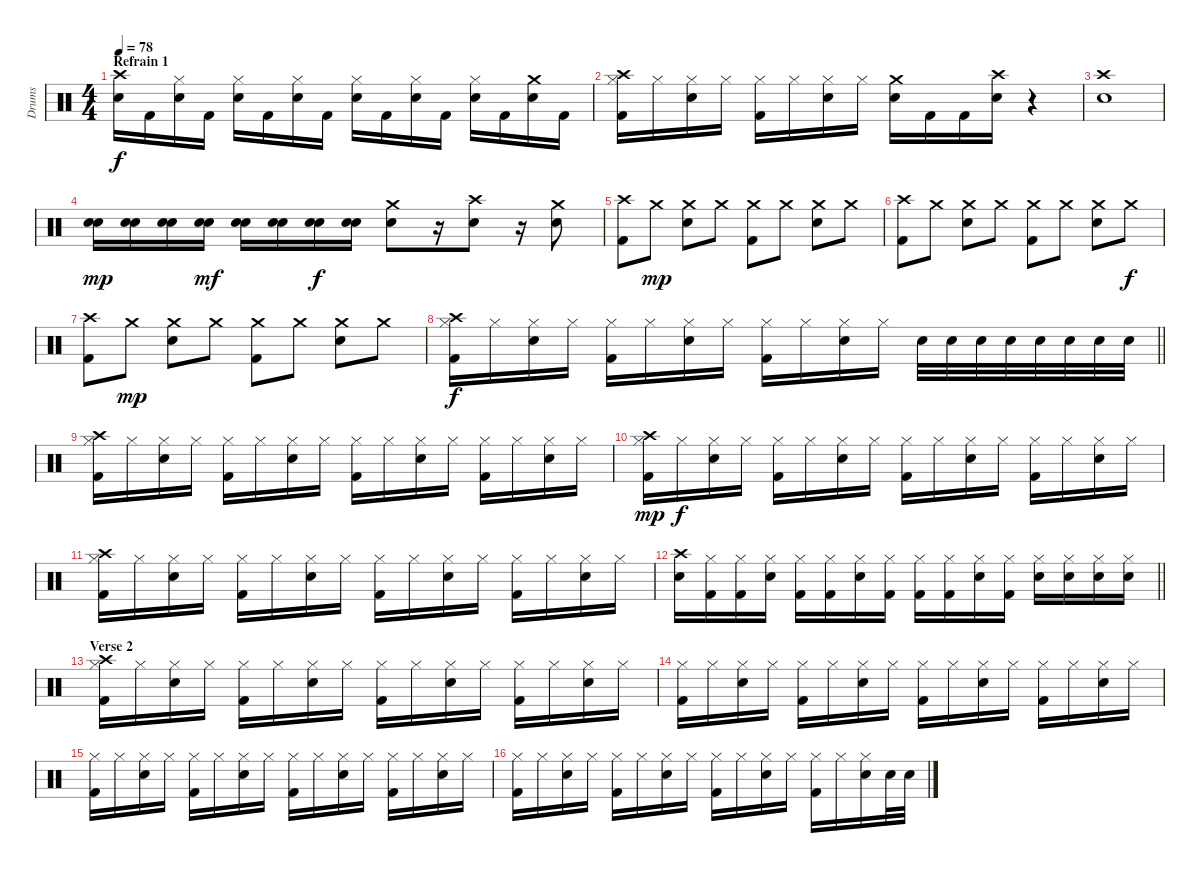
\track ("Drums" "Drums") {instrument percussion}
\staff {score}
\articulation defaults
\ts (4 4)
\section ("" "Refrain 1")
\tempo 78
\clef neutral
\ks c
("Crash high (hit)" "Snare (hit) 2").16{dy f} "Kick (hit) 2".16 ("Hi-Hat (closed)" "Snare (hit) 2").16 "Kick (hit) 2".16 ("Hi-Hat (closed)" "Snare (hit) 2").16 "Kick (hit) 2".16 ("Hi-Hat (closed)" "Snare (hit) 2").16 "Kick (hit) 2".16 ("Hi-Hat (closed)" "Snare (hit) 2").16 "Kick (hit) 2".16 ("Hi-Hat (closed)" "Snare (hit) 2").16 "Kick (hit) 2".16 ("Hi-Hat (closed)" "Snare (hit) 2").16 "Kick (hit) 2".16 ("Crash medium (hit)" "Snare (hit) 2").16 "Kick (hit) 2".16 |
("Crash high (hit)" "Hi-Hat (closed)" "Kick (hit) 2").16 "Hi-Hat (closed)".16 ("Hi-Hat (closed)" "Snare (hit) 2").16 "Hi-Hat (closed)".16 ("Hi-Hat (closed)" "Kick (hit) 2").16 "Hi-Hat (closed)".16 ("Hi-Hat (closed)" "Snare (hit) 2").16 "Hi-Hat (closed)".16 ("Crash medium (hit)" "Snare (hit) 2").16 "Kick (hit) 2".16 "Kick (hit) 2".16 ("Crash high (hit)" "Snare (hit) 2").16 r.4 |
("Crash high (hit)" "Snare (hit) 2").1 |
("Electric Snare (hit)" "Snare (hit) 2").16{dy mp} ("Electric Snare (hit)" "Snare (hit) 2").16 ("Electric Snare (hit)" "Snare (hit) 2").16 ("Electric Snare (hit)" "Snare (hit) 2").16{dy mf} ("Electric Snare (hit)" "Snare (hit) 2").16 ("Electric Snare (hit)" "Snare (hit) 2").16 ("Electric Snare (hit)" "Snare (hit) 2").16{dy f} ("Electric Snare (hit)" "Snare (hit) 2").16 ("Crash medium (hit)" "Snare (hit) 2").8 r.16 ("Crash high (hit)" "Snare (hit) 2").8 r.16 ("Crash medium (hit)" "Snare (hit) 2").8 |
("Crash high (hit)" "Kick (hit) 2").8 "Crash medium (hit)".8{dy mp} ("Crash medium (hit)" "Snare (hit) 2").8 "Crash medium (hit)".8 ("Crash medium (hit)" "Kick (hit) 2").8 "Crash medium (hit)".8 ("Crash medium (hit)" "Snare (hit) 2").8 "Crash medium (hit)".8 |
("Crash high (hit)" "Kick (hit) 2").8 "Crash medium (hit)".8 ("Crash medium (hit)" "Snare (hit) 2").8 "Crash medium (hit)".8 ("Crash medium (hit)" "Kick (hit) 2").8 "Crash medium (hit)".8 ("Crash medium (hit)" "Snare (hit) 2").8 "Crash medium (hit)".8{dy f} |
("Crash high (hit)" "Kick (hit) 2").8 "Crash medium (hit)".8{dy mp} ("Crash medium (hit)" "Snare (hit) 2").8 "Crash medium (hit)".8 ("Crash medium (hit)" "Kick (hit) 2").8 "Crash medium (hit)".8 ("Crash medium (hit)" "Snare (hit) 2").8 "Crash medium (hit)".8 |
\barLineRight lightlight
("Crash high (hit)" "Hi-Hat (closed)" "Kick (hit) 2").16{dy f} "Hi-Hat (closed)".16 ("Hi-Hat (closed)" "Snare (hit) 2").16 "Hi-Hat (closed)".16 ("Hi-Hat (closed)" "Kick (hit) 2").16 "Hi-Hat (closed)".16 ("Hi-Hat (closed)" "Snare (hit) 2").16 "Hi-Hat (closed)".16 ("Hi-Hat (closed)" "Kick (hit) 2").16 "Hi-Hat (closed)".16 ("Hi-Hat (closed)" "Snare (hit) 2").16 "Hi-Hat (closed)".16 "Snare (hit) 2".32 "Snare (hit) 2".32 "Snare (hit) 2".32 "Snare (hit) 2".32 "Snare (hit) 2".32 "Snare (hit) 2".32 "Snare (hit) 2".32 "Snare (hit) 2".32 |
("Crash high (hit)" "Hi-Hat (closed)" "Kick (hit) 2").16 "Hi-Hat (closed)".16 ("Hi-Hat (closed)" "Snare (hit) 2").16 "Hi-Hat (closed)".16 ("Hi-Hat (closed)" "Kick (hit) 2").16 "Hi-Hat (closed)".16 ("Hi-Hat (closed)" "Snare (hit) 2").16 "Hi-Hat (closed)".16 ("Hi-Hat (closed)" "Kick (hit) 2").16 "Hi-Hat (closed)".16 ("Hi-Hat (closed)" "Snare (hit) 2").16 "Hi-Hat (closed)".16 ("Hi-Hat (closed)" "Kick (hit) 2").16 "Hi-Hat (closed)".16 ("Hi-Hat (closed)" "Snare (hit) 2").16 "Hi-Hat (closed)".16 |
("Crash high (hit)" "Hi-Hat (closed)" "Kick (hit) 2").16{dy mp} "Hi-Hat (closed)".16{dy f} ("Hi-Hat (closed)" "Snare (hit) 2").16 "Hi-Hat (closed)".16 ("Hi-Hat (closed)" "Kick (hit) 2").16 "Hi-Hat (closed)".16 ("Hi-Hat (closed)" "Snare (hit) 2").16 "Hi-Hat (closed)".16 ("Hi-Hat (closed)" "Kick (hit) 2").16 "Hi-Hat (closed)".16 ("Hi-Hat (closed)" "Snare (hit) 2").16 "Hi-Hat (closed)".16 ("Hi-Hat (closed)" "Kick (hit) 2").16 "Hi-Hat (closed)".16 ("Hi-Hat (closed)" "Snare (hit) 2").16 "Hi-Hat (closed)".16 |
("Crash high (hit)" "Hi-Hat (closed)" "Kick (hit) 2").16 "Hi-Hat (closed)".16 ("Hi-Hat (closed)" "Snare (hit) 2").16 "Hi-Hat (closed)".16 ("Hi-Hat (closed)" "Kick (hit) 2").16 "Hi-Hat (closed)".16 ("Hi-Hat (closed)" "Snare (hit) 2").16 "Hi-Hat (closed)".16 ("Hi-Hat (closed)" "Kick (hit) 2").16 "Hi-Hat (closed)".16 ("Hi-Hat (closed)" "Snare (hit) 2").16 "Hi-Hat (closed)".16 ("Hi-Hat (closed)" "Kick (hit) 2").16 "Hi-Hat (closed)".16 ("Hi-Hat (closed)" "Snare (hit) 2").16 "Hi-Hat (closed)".16 |
\barLineRight lightlight
("Crash high (hit)" "Snare (hit) 2").16 ("Hi-Hat (closed)" "Kick (hit) 2").16 ("Hi-Hat (closed)" "Kick (hit) 2").16 ("Hi-Hat (closed)" "Snare (hit) 2").16 ("Hi-Hat (closed)" "Kick (hit) 2").16 ("Hi-Hat (closed)" "Kick (hit) 2").16 ("Hi-Hat (closed)" "Snare (hit) 2").16 ("Hi-Hat (closed)" "Kick (hit) 2").16 ("Hi-Hat (closed)" "Kick (hit) 2").16 ("Hi-Hat (closed)" "Kick (hit) 2").16 ("Hi-Hat (closed)" "Snare (hit) 2").16 ("Hi-Hat (closed)" "Kick (hit) 2").16 ("Hi-Hat (closed)" "Snare (hit) 2").16 ("Hi-Hat (closed)" "Snare (hit) 2").16 ("Hi-Hat (closed)" "Snare (hit) 2").16 ("Hi-Hat (closed)" "Snare (hit) 2").16 |
\section ("" "Verse 2")
("Crash high (hit)" "Hi-Hat (closed)" "Kick (hit) 2").16 "Hi-Hat (closed)".16 ("Hi-Hat (closed)" "Snare (hit) 2").16 "Hi-Hat (closed)".16 ("Hi-Hat (closed)" "Kick (hit) 2").16 "Hi-Hat (closed)".16 ("Hi-Hat (closed)" "Snare (hit) 2").16 "Hi-Hat (closed)".16 ("Hi-Hat (closed)" "Kick (hit) 2").16 "Hi-Hat (closed)".16 ("Hi-Hat (closed)" "Snare (hit) 2").16 "Hi-Hat (closed)".16 ("Hi-Hat (closed)" "Kick (hit) 2").16 "Hi-Hat (closed)".16 ("Hi-Hat (closed)" "Snare (hit) 2").16 "Hi-Hat (closed)".16 |
("Hi-Hat (closed)" "Kick (hit) 2").16 "Hi-Hat (closed)".16 ("Hi-Hat (closed)" "Snare (hit) 2").16 "Hi-Hat (closed)".16 ("Hi-Hat (closed)" "Kick (hit) 2").16 "Hi-Hat (closed)".16 ("Hi-Hat (closed)" "Snare (hit) 2").16 "Hi-Hat (closed)".16 ("Hi-Hat (closed)" "Kick (hit) 2").16 "Hi-Hat (closed)".16 ("Hi-Hat (closed)" "Snare (hit) 2").16 "Hi-Hat (closed)".16 ("Hi-Hat (closed)" "Kick (hit) 2").16 "Hi-Hat (closed)".16 ("Hi-Hat (closed)" "Snare (hit) 2").16 "Hi-Hat (closed)".16 |
("Hi-Hat (closed)" "Kick (hit) 2").16 "Hi-Hat (closed)".16 ("Hi-Hat (closed)" "Snare (hit) 2").16 "Hi-Hat (closed)".16 ("Hi-Hat (closed)" "Kick (hit) 2").16 "Hi-Hat (closed)".16 ("Hi-Hat (closed)" "Snare (hit) 2").16 "Hi-Hat (closed)".16 ("Hi-Hat (closed)" "Kick (hit) 2").16 "Hi-Hat (closed)".16 ("Hi-Hat (closed)" "Snare (hit) 2").16 "Hi-Hat (closed)".16 ("Hi-Hat (closed)" "Kick (hit) 2").16 "Hi-Hat (closed)".16 ("Hi-Hat (closed)" "Snare (hit) 2").16 "Hi-Hat (closed)".16 |
("Hi-Hat (closed)" "Kick (hit) 2").16 "Hi-Hat (closed)".16 ("Hi-Hat (closed)" "Snare (hit) 2").16 "Hi-Hat (closed)".16 ("Hi-Hat (closed)" "Kick (hit) 2").16 "Hi-Hat (closed)".16 ("Hi-Hat (closed)" "Snare (hit) 2").16 "Hi-Hat (closed)".16 ("Hi-Hat (closed)" "Kick (hit) 2").16 "Hi-Hat (closed)".16 ("Hi-Hat (closed)" "Snare (hit) 2").16 "Hi-Hat (closed)".16 ("Hi-Hat (closed)" "Kick (hit) 2").16 "Hi-Hat (closed)".16 ("Hi-Hat (closed)" "Snare (hit) 2").16 "Snare (hit) 2".32 "Snare (hit) 2".32
